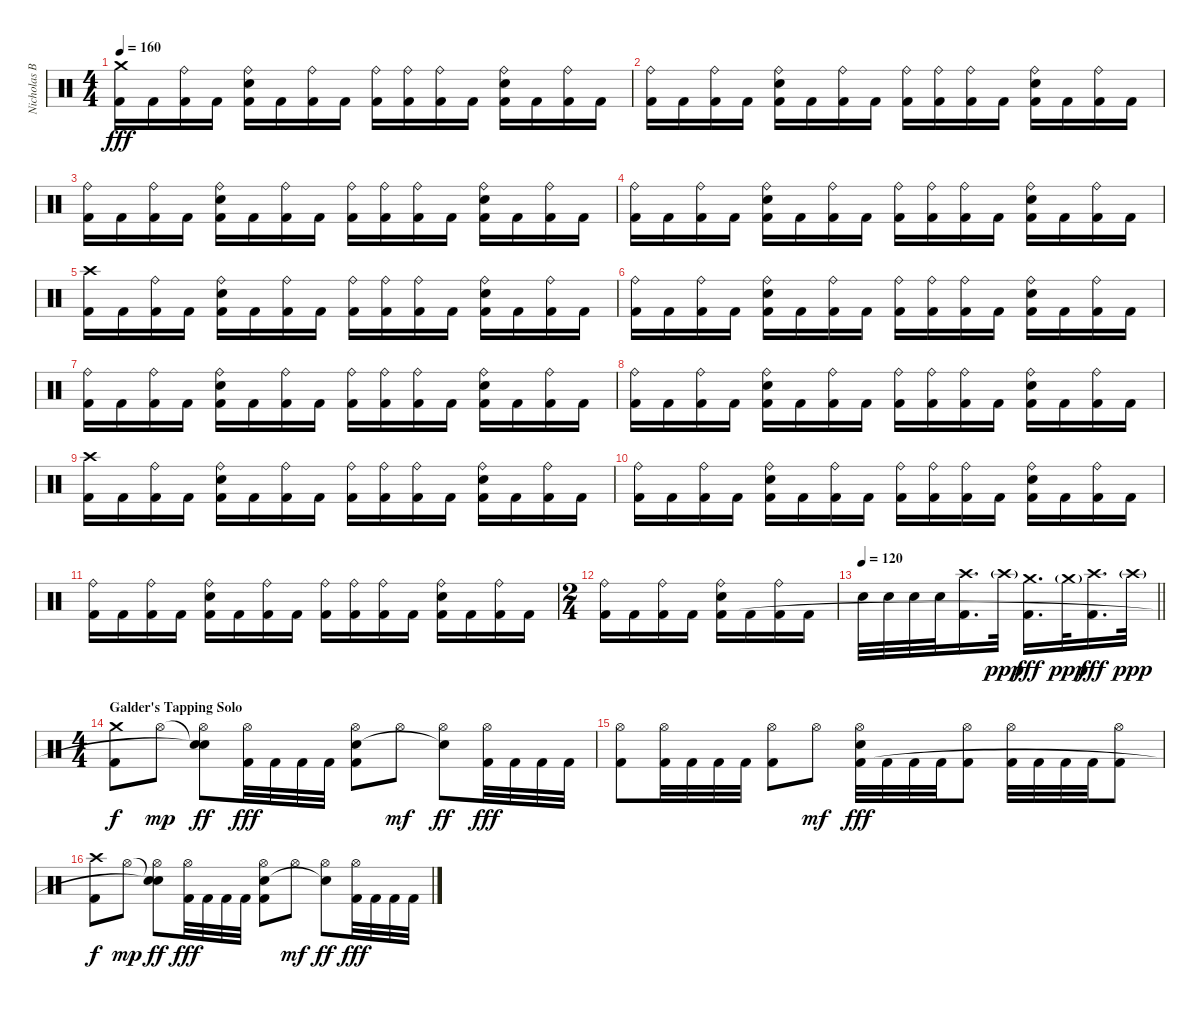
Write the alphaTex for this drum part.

\track ("Nicholas Barker" "Nicholas B") {instrument percussion}
\staff {score}
\articulation defaults
\ts (4 4)
\tempo 160
\clef neutral
\ks c
("Crash medium (hit)" "Kick (hit) 2").16{dy fff} "Kick (hit) 2".16 ("Ride (bell)" "Kick (hit) 2").16 "Kick (hit) 2".16 ("Ride (bell)" "Snare (hit) 2" "Kick (hit) 2").16 "Kick (hit) 2".16 ("Ride (bell)" "Kick (hit) 2").16 "Kick (hit) 2".16 ("Ride (bell)" "Kick (hit) 2").16 ("Ride (bell)" "Kick (hit) 2").16 ("Ride (bell)" "Kick (hit) 2").16 "Kick (hit) 2".16 ("Ride (bell)" "Snare (hit) 2" "Kick (hit) 2").16 "Kick (hit) 2".16 ("Ride (bell)" "Kick (hit) 2").16 "Kick (hit) 2".16 |
("Ride (bell)" "Kick (hit) 2").16 "Kick (hit) 2".16 ("Ride (bell)" "Kick (hit) 2").16 "Kick (hit) 2".16 ("Ride (bell)" "Snare (hit) 2" "Kick (hit) 2").16 "Kick (hit) 2".16 ("Ride (bell)" "Kick (hit) 2").16 "Kick (hit) 2".16 ("Ride (bell)" "Kick (hit) 2").16 ("Ride (bell)" "Kick (hit) 2").16 ("Ride (bell)" "Kick (hit) 2").16 "Kick (hit) 2".16 ("Ride (bell)" "Snare (hit) 2" "Kick (hit) 2").16 "Kick (hit) 2".16 ("Ride (bell)" "Kick (hit) 2").16 "Kick (hit) 2".16 |
("Ride (bell)" "Kick (hit) 2").16 "Kick (hit) 2".16 ("Ride (bell)" "Kick (hit) 2").16 "Kick (hit) 2".16 ("Ride (bell)" "Snare (hit) 2" "Kick (hit) 2").16 "Kick (hit) 2".16 ("Ride (bell)" "Kick (hit) 2").16 "Kick (hit) 2".16 ("Ride (bell)" "Kick (hit) 2").16 ("Ride (bell)" "Kick (hit) 2").16 ("Ride (bell)" "Kick (hit) 2").16 "Kick (hit) 2".16 ("Ride (bell)" "Snare (hit) 2" "Kick (hit) 2").16 "Kick (hit) 2".16 ("Ride (bell)" "Kick (hit) 2").16 "Kick (hit) 2".16 |
("Ride (bell)" "Kick (hit) 2").16 "Kick (hit) 2".16 ("Ride (bell)" "Kick (hit) 2").16 "Kick (hit) 2".16 ("Ride (bell)" "Snare (hit) 2" "Kick (hit) 2").16 "Kick (hit) 2".16 ("Ride (bell)" "Kick (hit) 2").16 "Kick (hit) 2".16 ("Ride (bell)" "Kick (hit) 2").16 ("Ride (bell)" "Kick (hit) 2").16 ("Ride (bell)" "Kick (hit) 2").16 "Kick (hit) 2".16 ("Ride (bell)" "Snare (hit) 2" "Kick (hit) 2").16 "Kick (hit) 2".16 ("Ride (bell)" "Kick (hit) 2").16 "Kick (hit) 2".16 |
("Crash high (hit)" "Kick (hit) 2").16 "Kick (hit) 2".16 ("Ride (bell)" "Kick (hit) 2").16 "Kick (hit) 2".16 ("Ride (bell)" "Snare (hit) 2" "Kick (hit) 2").16 "Kick (hit) 2".16 ("Ride (bell)" "Kick (hit) 2").16 "Kick (hit) 2".16 ("Ride (bell)" "Kick (hit) 2").16 ("Ride (bell)" "Kick (hit) 2").16 ("Ride (bell)" "Kick (hit) 2").16 "Kick (hit) 2".16 ("Ride (bell)" "Snare (hit) 2" "Kick (hit) 2").16 "Kick (hit) 2".16 ("Ride (bell)" "Kick (hit) 2").16 "Kick (hit) 2".16 |
("Ride (bell)" "Kick (hit) 2").16 "Kick (hit) 2".16 ("Ride (bell)" "Kick (hit) 2").16 "Kick (hit) 2".16 ("Ride (bell)" "Snare (hit) 2" "Kick (hit) 2").16 "Kick (hit) 2".16 ("Ride (bell)" "Kick (hit) 2").16 "Kick (hit) 2".16 ("Ride (bell)" "Kick (hit) 2").16 ("Ride (bell)" "Kick (hit) 2").16 ("Ride (bell)" "Kick (hit) 2").16 "Kick (hit) 2".16 ("Ride (bell)" "Snare (hit) 2" "Kick (hit) 2").16 "Kick (hit) 2".16 ("Ride (bell)" "Kick (hit) 2").16 "Kick (hit) 2".16 |
("Ride (bell)" "Kick (hit) 2").16 "Kick (hit) 2".16 ("Ride (bell)" "Kick (hit) 2").16 "Kick (hit) 2".16 ("Ride (bell)" "Snare (hit) 2" "Kick (hit) 2").16 "Kick (hit) 2".16 ("Ride (bell)" "Kick (hit) 2").16 "Kick (hit) 2".16 ("Ride (bell)" "Kick (hit) 2").16 ("Ride (bell)" "Kick (hit) 2").16 ("Ride (bell)" "Kick (hit) 2").16 "Kick (hit) 2".16 ("Ride (bell)" "Snare (hit) 2" "Kick (hit) 2").16 "Kick (hit) 2".16 ("Ride (bell)" "Kick (hit) 2").16 "Kick (hit) 2".16 |
("Ride (bell)" "Kick (hit) 2").16 "Kick (hit) 2".16 ("Ride (bell)" "Kick (hit) 2").16 "Kick (hit) 2".16 ("Ride (bell)" "Snare (hit) 2" "Kick (hit) 2").16 "Kick (hit) 2".16 ("Ride (bell)" "Kick (hit) 2").16 "Kick (hit) 2".16 ("Ride (bell)" "Kick (hit) 2").16 ("Ride (bell)" "Kick (hit) 2").16 ("Ride (bell)" "Kick (hit) 2").16 "Kick (hit) 2".16 ("Ride (bell)" "Snare (hit) 2" "Kick (hit) 2").16 "Kick (hit) 2".16 ("Ride (bell)" "Kick (hit) 2").16 "Kick (hit) 2".16 |
("Crash high (hit)" "Kick (hit) 2").16 "Kick (hit) 2".16 ("Ride (bell)" "Kick (hit) 2").16 "Kick (hit) 2".16 ("Ride (bell)" "Snare (hit) 2" "Kick (hit) 2").16 "Kick (hit) 2".16 ("Ride (bell)" "Kick (hit) 2").16 "Kick (hit) 2".16 ("Ride (bell)" "Kick (hit) 2").16 ("Ride (bell)" "Kick (hit) 2").16 ("Ride (bell)" "Kick (hit) 2").16 "Kick (hit) 2".16 ("Ride (bell)" "Snare (hit) 2" "Kick (hit) 2").16 "Kick (hit) 2".16 ("Ride (bell)" "Kick (hit) 2").16 "Kick (hit) 2".16 |
("Ride (bell)" "Kick (hit) 2").16 "Kick (hit) 2".16 ("Ride (bell)" "Kick (hit) 2").16 "Kick (hit) 2".16 ("Ride (bell)" "Snare (hit) 2" "Kick (hit) 2").16 "Kick (hit) 2".16 ("Ride (bell)" "Kick (hit) 2").16 "Kick (hit) 2".16 ("Ride (bell)" "Kick (hit) 2").16 ("Ride (bell)" "Kick (hit) 2").16 ("Ride (bell)" "Kick (hit) 2").16 "Kick (hit) 2".16 ("Ride (bell)" "Snare (hit) 2" "Kick (hit) 2").16 "Kick (hit) 2".16 ("Ride (bell)" "Kick (hit) 2").16 "Kick (hit) 2".16 |
("Ride (bell)" "Kick (hit) 2").16 "Kick (hit) 2".16 ("Ride (bell)" "Kick (hit) 2").16 "Kick (hit) 2".16 ("Ride (bell)" "Snare (hit) 2" "Kick (hit) 2").16 "Kick (hit) 2".16 ("Ride (bell)" "Kick (hit) 2").16 "Kick (hit) 2".16 ("Ride (bell)" "Kick (hit) 2").16 ("Ride (bell)" "Kick (hit) 2").16 ("Ride (bell)" "Kick (hit) 2").16 "Kick (hit) 2".16 ("Ride (bell)" "Snare (hit) 2" "Kick (hit) 2").16 "Kick (hit) 2".16 ("Ride (bell)" "Kick (hit) 2").16 "Kick (hit) 2".16 |
\ts (2 4)
("Ride (bell)" "Kick (hit) 2").16 "Kick (hit) 2".16 ("Ride (bell)" "Kick (hit) 2").16 "Kick (hit) 2".16 ("Ride (bell)" "Snare (hit) 2" "Kick (hit) 2").16 "Kick (hit) 2".16 ("Ride (bell)" "Kick (hit) 2").16 "Kick (hit) 2".16 |
\tempo 120
\barLineRight lightlight "Snare (hit) 2".32 "Snare (hit) 2".32 "Snare (hit) 2".32 "Snare (hit) 2".32
("Crash high (hit)" "Kick (hit) 2").16{d} "Crash high (hit)"{g}.32{dy ppp} ("Crash medium (hit)" "Kick (hit) 2").16{d dy fff} "Crash medium (hit)"{g}.32{dy ppp} ("Crash high (hit)" "Kick (hit) 2").16{d dy fff} "Crash high (hit)"{g}.32{dy ppp} |
\ts (4 4)
\section ("" "Galder's Tapping Solo")
("Crash medium (hit)" "Kick (hit) 2").8{dy f} "Hi-Hat (open)".8{dy mp} ("Snare (hit)"{t} "Hi-Hat (open)" "Snare (hit)"{t}).8{dy ff} ("Hi-Hat (open)" "Kick (hit) 2").32{dy fff} "Kick (hit) 2".32 "Kick (hit) 2".32 "Kick (hit) 2".32 ("Hi-Hat (open)" "Snare (hit) 2" "Kick (hit) 2").8 "Hi-Hat (open)".8{dy mf} ("Hi-Hat (open)" "Snare (hit)"{t}).8{dy ff} ("Hi-Hat (open)" "Kick (hit) 2").32{dy fff} "Kick (hit) 2".32 "Kick (hit) 2".32 "Kick (hit) 2".32 |
("Hi-Hat (open)" "Kick (hit) 2").8 ("Hi-Hat (open)" "Kick (hit) 2").32 "Kick (hit) 2".32 "Kick (hit) 2".32 "Kick (hit) 2".32 ("Hi-Hat (open)" "Kick (hit) 2").8 "Hi-Hat (open)".8{dy mf} ("Hi-Hat (open)" "Snare (hit) 2" "Kick (hit) 2").32{dy fff} "Kick (hit) 2".32 "Kick (hit) 2".32 "Kick (hit) 2".32 ("Hi-Hat (open)" "Kick (hit) 2").8 ("Hi-Hat (open)" "Kick (hit) 2").32 "Kick (hit) 2".32 "Kick (hit) 2".32 "Kick (hit) 2".32 ("Hi-Hat (open)" "Kick (hit) 2").8 |
("Crash high (hit)" "Kick (hit) 2").8{dy f} "Hi-Hat (open)".8{dy mp} ("Snare (hit)"{t} "Hi-Hat (open)" "Snare (hit)"{t}).8{dy ff} ("Hi-Hat (open)" "Kick (hit) 2").32{dy fff} "Kick (hit) 2".32 "Kick (hit) 2".32 "Kick (hit) 2".32 ("Hi-Hat (open)" "Snare (hit) 2" "Kick (hit) 2").8 "Hi-Hat (open)".8{dy mf} ("Hi-Hat (open)" "Snare (hit)"{t}).8{dy ff} ("Hi-Hat (open)" "Kick (hit) 2").32{dy fff} "Kick (hit) 2".32 "Kick (hit) 2".32 "Kick (hit) 2".32
